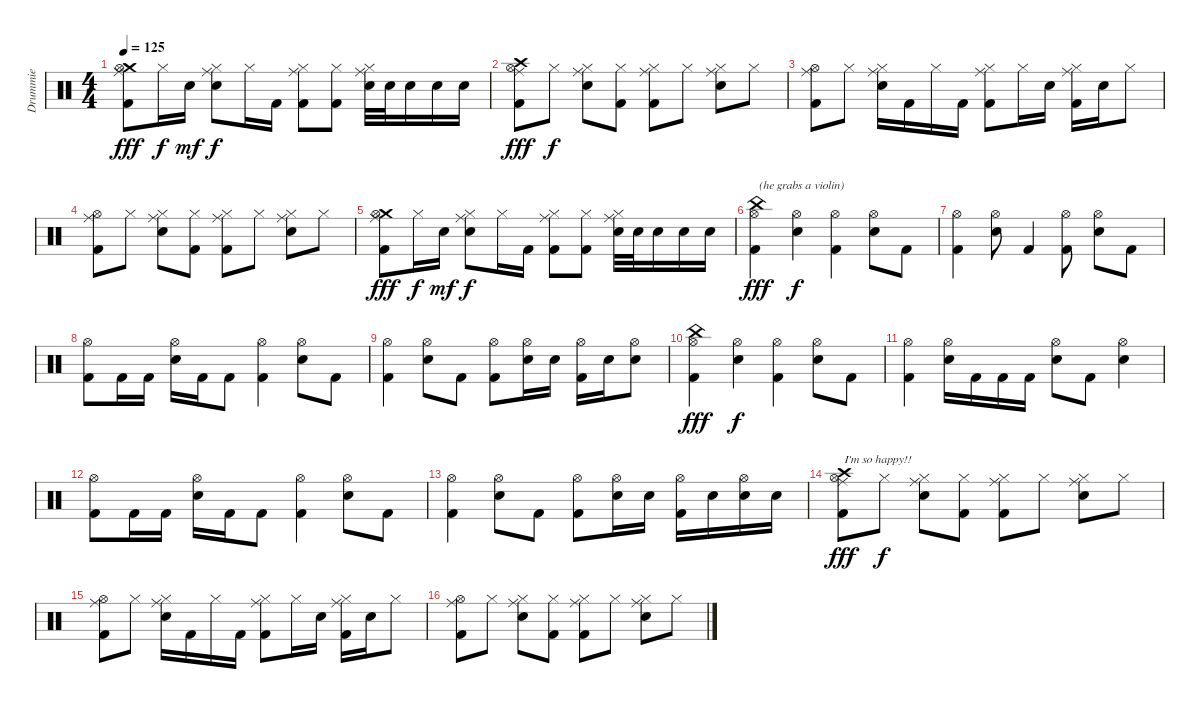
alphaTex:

\track ("Drummie" "Drummie") {instrument percussion}
\staff {score}
\articulation defaults
\ts (4 4)
\tempo 125
\clef neutral
\ks c
("Ride (middle)" "Crash medium (hit)" "Hi-Hat (open)" "Kick (hit) 2").8{dy fff} "Hi-Hat (closed)".16{dy f} "Electric Snare (hit)".16{dy mf} ("Ride (middle)" "Hi-Hat (closed)" "Electric Snare (hit)").8{dy f} "Hi-Hat (closed)".16 "Kick (hit) 2".16 ("Ride (middle)" "Hi-Hat (closed)" "Kick (hit) 2").8 ("Hi-Hat (closed)" "Kick (hit) 2").8 ("Ride (middle)" "Hi-Hat (closed)" "Electric Snare (hit)").32 "Electric Snare (hit)".32 "Electric Snare (hit)".16 "Electric Snare (hit)".16 "Electric Snare (hit)".16 |
("Ride (middle)" "Crash high (hit)" "Hi-Hat (open)" "Kick (hit) 2").8{dy fff} "Hi-Hat (closed)".8{dy f} ("Ride (middle)" "Hi-Hat (closed)" "Electric Snare (hit)").8 ("Hi-Hat (closed)" "Kick (hit) 2").8 ("Ride (middle)" "Hi-Hat (closed)" "Kick (hit) 2").8 "Hi-Hat (closed)".8 ("Ride (middle)" "Hi-Hat (closed)" "Electric Snare (hit)").8 "Hi-Hat (closed)".8 |
("Ride (middle)" "Hi-Hat (open)" "Kick (hit) 2").8 "Hi-Hat (closed)".8 ("Ride (middle)" "Hi-Hat (closed)" "Electric Snare (hit)").16 "Kick (hit) 2".16 "Hi-Hat (closed)".16 "Kick (hit) 2".16 ("Ride (middle)" "Hi-Hat (closed)" "Kick (hit) 2").8 "Hi-Hat (closed)".16 "Electric Snare (hit)".16 ("Ride (middle)" "Hi-Hat (closed)" "Kick (hit) 2").16 "Electric Snare (hit)".16 "Hi-Hat (closed)".8 |
("Ride (middle)" "Hi-Hat (open)" "Kick (hit) 2").8 "Hi-Hat (closed)".8 ("Ride (middle)" "Hi-Hat (closed)" "Electric Snare (hit)").8 ("Hi-Hat (closed)" "Kick (hit) 2").8 ("Ride (middle)" "Hi-Hat (closed)" "Kick (hit) 2").8 "Hi-Hat (closed)".8 ("Ride (middle)" "Hi-Hat (closed)" "Electric Snare (hit)").8 "Hi-Hat (closed)".8 |
("Ride (middle)" "Crash medium (hit)" "Hi-Hat (open)" "Kick (hit) 2").8{dy fff} "Hi-Hat (closed)".16{dy f} "Electric Snare (hit)".16{dy mf} ("Ride (middle)" "Hi-Hat (closed)" "Electric Snare (hit)").8{dy f} "Hi-Hat (closed)".16 "Kick (hit) 2".16 ("Ride (middle)" "Hi-Hat (closed)" "Kick (hit) 2").8 ("Hi-Hat (closed)" "Kick (hit) 2").8 ("Ride (middle)" "Hi-Hat (closed)" "Electric Snare (hit)").32 "Electric Snare (hit)".32 "Electric Snare (hit)".16 "Electric Snare (hit)".16 "Electric Snare (hit)".16 |
("China (hit)" "Hi-Hat (open)" "Kick (hit) 2").4{txt "(he grabs a violin)" dy fff} ("Hi-Hat (open)" "Electric Snare (hit)").4{dy f} ("Hi-Hat (open)" "Kick (hit) 2").4 ("Hi-Hat (open)" "Electric Snare (hit)").8 "Kick (hit) 2".8 |
("Hi-Hat (open)" "Kick (hit) 2").4 ("Hi-Hat (open)" "Electric Snare (hit)").8 "Kick (hit) 2".4 ("Hi-Hat (open)" "Kick (hit) 2").8 ("Hi-Hat (open)" "Electric Snare (hit)").8 "Kick (hit) 2".8 |
("Hi-Hat (open)" "Kick (hit) 2").8 "Kick (hit) 2".16 "Kick (hit) 2".16 ("Hi-Hat (open)" "Electric Snare (hit)").16 "Kick (hit) 2".16 "Kick (hit) 2".8 ("Hi-Hat (open)" "Kick (hit) 2").4 ("Hi-Hat (open)" "Electric Snare (hit)").8 "Kick (hit) 2".8 |
("Hi-Hat (open)" "Kick (hit) 2").4 ("Hi-Hat (open)" "Electric Snare (hit)").8 "Kick (hit) 2".8 ("Hi-Hat (open)" "Kick (hit) 2").8 ("Hi-Hat (open)" "Electric Snare (hit)").16 "Electric Snare (hit)".16 ("Hi-Hat (open)" "Kick (hit) 2").16 "Electric Snare (hit)".16 ("Hi-Hat (open)" "Electric Snare (hit)").8 |
("China (hit)" "Hi-Hat (open)" "Kick (hit) 2").4{dy fff} ("Hi-Hat (open)" "Electric Snare (hit)").4{dy f} ("Hi-Hat (open)" "Kick (hit) 2").4 ("Hi-Hat (open)" "Electric Snare (hit)").8 "Kick (hit) 2".8 |
("Hi-Hat (open)" "Kick (hit) 2").4 ("Hi-Hat (open)" "Electric Snare (hit)").16 "Kick (hit) 2".16 "Kick (hit) 2".16 "Kick (hit) 2".16 ("Hi-Hat (open)" "Electric Snare (hit)").8 "Kick (hit) 2".8 ("Hi-Hat (open)" "Electric Snare (hit)").4 |
("Hi-Hat (open)" "Kick (hit) 2").8 "Kick (hit) 2".16 "Kick (hit) 2".16 ("Hi-Hat (open)" "Electric Snare (hit)").16 "Kick (hit) 2".16 "Kick (hit) 2".8 ("Hi-Hat (open)" "Kick (hit) 2").4 ("Hi-Hat (open)" "Electric Snare (hit)").8 "Kick (hit) 2".8 |
("Hi-Hat (open)" "Kick (hit) 2").4 ("Hi-Hat (open)" "Electric Snare (hit)").8 "Kick (hit) 2".8 ("Hi-Hat (open)" "Kick (hit) 2").8 ("Hi-Hat (open)" "Electric Snare (hit)").16 "Electric Snare (hit)".16 ("Hi-Hat (open)" "Kick (hit) 2").16 "Electric Snare (hit)".16 ("Hi-Hat (open)" "Electric Snare (hit)").16 "Electric Snare (hit)".16 |
("Ride (middle)" "Crash high (hit)" "Hi-Hat (open)" "Kick (hit) 2").8{txt "I'm so happy!!" dy fff} "Hi-Hat (closed)".8{dy f} ("Ride (middle)" "Hi-Hat (closed)" "Electric Snare (hit)").8 ("Hi-Hat (closed)" "Kick (hit) 2").8 ("Ride (middle)" "Hi-Hat (closed)" "Kick (hit) 2").8 "Hi-Hat (closed)".8 ("Ride (middle)" "Hi-Hat (closed)" "Electric Snare (hit)").8 "Hi-Hat (closed)".8 |
("Ride (middle)" "Hi-Hat (open)" "Kick (hit) 2").8 "Hi-Hat (closed)".8 ("Ride (middle)" "Hi-Hat (closed)" "Electric Snare (hit)").16 "Kick (hit) 2".16 "Hi-Hat (closed)".16 "Kick (hit) 2".16 ("Ride (middle)" "Hi-Hat (closed)" "Kick (hit) 2").8 "Hi-Hat (closed)".16 "Electric Snare (hit)".16 ("Ride (middle)" "Hi-Hat (closed)" "Kick (hit) 2").16 "Electric Snare (hit)".16 "Hi-Hat (closed)".8 |
("Ride (middle)" "Hi-Hat (open)" "Kick (hit) 2").8 "Hi-Hat (closed)".8 ("Ride (middle)" "Hi-Hat (closed)" "Electric Snare (hit)").8 ("Hi-Hat (closed)" "Kick (hit) 2").8 ("Ride (middle)" "Hi-Hat (closed)" "Kick (hit) 2").8 "Hi-Hat (closed)".8 ("Ride (middle)" "Hi-Hat (closed)" "Electric Snare (hit)").8 "Hi-Hat (closed)".8
